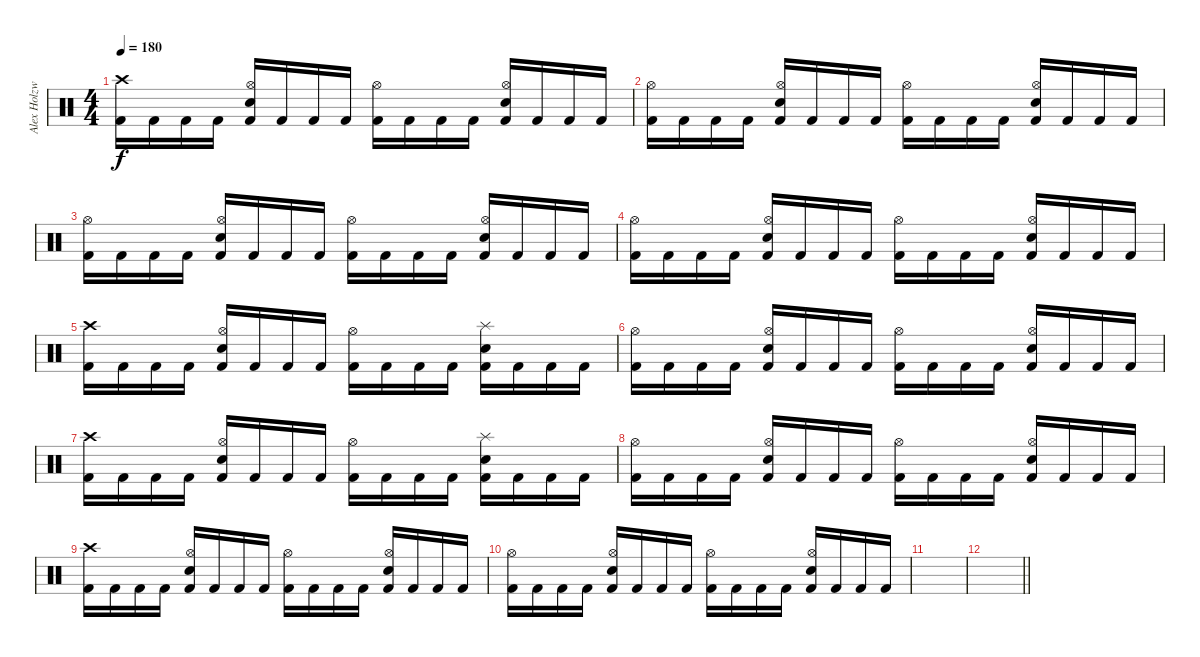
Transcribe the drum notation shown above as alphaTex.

\track ("Alex Holzwarth" "Alex Holzw") {instrument percussion}
\staff {score}
\articulation defaults
\ts (4 4)
\tempo 180
\clef neutral
\ks c
("Crash high (hit)" "Kick (hit) 2").16{dy f} "Kick (hit) 2".16 "Kick (hit) 2".16 "Kick (hit) 2".16 ("Hi-Hat (open)" "Electric Snare (hit)" "Kick (hit) 2").16 "Kick (hit) 2".16 "Kick (hit) 2".16 "Kick (hit) 2".16 ("Hi-Hat (open)" "Kick (hit) 2").16 "Kick (hit) 2".16 "Kick (hit) 2".16 "Kick (hit) 2".16 ("Hi-Hat (open)" "Electric Snare (hit)" "Kick (hit) 2").16 "Kick (hit) 2".16 "Kick (hit) 2".16 "Kick (hit) 2".16 |
("Hi-Hat (open)" "Kick (hit) 2").16 "Kick (hit) 2".16 "Kick (hit) 2".16 "Kick (hit) 2".16 ("Hi-Hat (open)" "Electric Snare (hit)" "Kick (hit) 2").16 "Kick (hit) 2".16 "Kick (hit) 2".16 "Kick (hit) 2".16 ("Hi-Hat (open)" "Kick (hit) 2").16 "Kick (hit) 2".16 "Kick (hit) 2".16 "Kick (hit) 2".16 ("Hi-Hat (open)" "Electric Snare (hit)" "Kick (hit) 2").16 "Kick (hit) 2".16 "Kick (hit) 2".16 "Kick (hit) 2".16 |
("Hi-Hat (open)" "Kick (hit) 2").16 "Kick (hit) 2".16 "Kick (hit) 2".16 "Kick (hit) 2".16 ("Hi-Hat (open)" "Electric Snare (hit)" "Kick (hit) 2").16 "Kick (hit) 2".16 "Kick (hit) 2".16 "Kick (hit) 2".16 ("Hi-Hat (open)" "Kick (hit) 2").16 "Kick (hit) 2".16 "Kick (hit) 2".16 "Kick (hit) 2".16 ("Hi-Hat (open)" "Electric Snare (hit)" "Kick (hit) 2").16 "Kick (hit) 2".16 "Kick (hit) 2".16 "Kick (hit) 2".16 |
("Hi-Hat (open)" "Kick (hit) 2").16 "Kick (hit) 2".16 "Kick (hit) 2".16 "Kick (hit) 2".16 ("Hi-Hat (open)" "Electric Snare (hit)" "Kick (hit) 2").16 "Kick (hit) 2".16 "Kick (hit) 2".16 "Kick (hit) 2".16 ("Hi-Hat (open)" "Kick (hit) 2").16 "Kick (hit) 2".16 "Kick (hit) 2".16 "Kick (hit) 2".16 ("Hi-Hat (open)" "Electric Snare (hit)" "Kick (hit) 2").16 "Kick (hit) 2".16 "Kick (hit) 2".16 "Kick (hit) 2".16 |
("Crash high (hit)" "Kick (hit) 2").16 "Kick (hit) 2".16 "Kick (hit) 2".16 "Kick (hit) 2".16 ("Hi-Hat (open)" "Electric Snare (hit)" "Kick (hit) 2").16 "Kick (hit) 2".16 "Kick (hit) 2".16 "Kick (hit) 2".16 ("Hi-Hat (open)" "Kick (hit) 2").16 "Kick (hit) 2".16 "Kick (hit) 2".16 "Kick (hit) 2".16 ("Splash (hit)" "Electric Snare (hit)" "Kick (hit) 2").16 "Kick (hit) 2".16 "Kick (hit) 2".16 "Kick (hit) 2".16 |
("Hi-Hat (open)" "Kick (hit) 2").16 "Kick (hit) 2".16 "Kick (hit) 2".16 "Kick (hit) 2".16 ("Hi-Hat (open)" "Electric Snare (hit)" "Kick (hit) 2").16 "Kick (hit) 2".16 "Kick (hit) 2".16 "Kick (hit) 2".16 ("Hi-Hat (open)" "Kick (hit) 2").16 "Kick (hit) 2".16 "Kick (hit) 2".16 "Kick (hit) 2".16 ("Hi-Hat (open)" "Electric Snare (hit)" "Kick (hit) 2").16 "Kick (hit) 2".16 "Kick (hit) 2".16 "Kick (hit) 2".16 |
("Crash high (hit)" "Kick (hit) 2").16 "Kick (hit) 2".16 "Kick (hit) 2".16 "Kick (hit) 2".16 ("Hi-Hat (open)" "Electric Snare (hit)" "Kick (hit) 2").16 "Kick (hit) 2".16 "Kick (hit) 2".16 "Kick (hit) 2".16 ("Hi-Hat (open)" "Kick (hit) 2").16 "Kick (hit) 2".16 "Kick (hit) 2".16 "Kick (hit) 2".16 ("Splash (hit)" "Electric Snare (hit)" "Kick (hit) 2").16 "Kick (hit) 2".16 "Kick (hit) 2".16 "Kick (hit) 2".16 |
("Hi-Hat (open)" "Kick (hit) 2").16 "Kick (hit) 2".16 "Kick (hit) 2".16 "Kick (hit) 2".16 ("Hi-Hat (open)" "Electric Snare (hit)" "Kick (hit) 2").16 "Kick (hit) 2".16 "Kick (hit) 2".16 "Kick (hit) 2".16 ("Hi-Hat (open)" "Kick (hit) 2").16 "Kick (hit) 2".16 "Kick (hit) 2".16 "Kick (hit) 2".16 ("Hi-Hat (open)" "Electric Snare (hit)" "Kick (hit) 2").16 "Kick (hit) 2".16 "Kick (hit) 2".16 "Kick (hit) 2".16 |
("Crash high (hit)" "Kick (hit) 2").16 "Kick (hit) 2".16 "Kick (hit) 2".16 "Kick (hit) 2".16 ("Hi-Hat (open)" "Electric Snare (hit)" "Kick (hit) 2").16 "Kick (hit) 2".16 "Kick (hit) 2".16 "Kick (hit) 2".16 ("Hi-Hat (open)" "Kick (hit) 2").16 "Kick (hit) 2".16 "Kick (hit) 2".16 "Kick (hit) 2".16 ("Hi-Hat (open)" "Electric Snare (hit)" "Kick (hit) 2").16 "Kick (hit) 2".16 "Kick (hit) 2".16 "Kick (hit) 2".16 |
("Hi-Hat (open)" "Kick (hit) 2").16 "Kick (hit) 2".16 "Kick (hit) 2".16 "Kick (hit) 2".16 ("Hi-Hat (open)" "Electric Snare (hit)" "Kick (hit) 2").16 "Kick (hit) 2".16 "Kick (hit) 2".16 "Kick (hit) 2".16 ("Hi-Hat (open)" "Kick (hit) 2").16 "Kick (hit) 2".16 "Kick (hit) 2".16 "Kick (hit) 2".16 ("Hi-Hat (open)" "Electric Snare (hit)" "Kick (hit) 2").16 "Kick (hit) 2".16 "Kick (hit) 2".16 "Kick (hit) 2".16 |
|
\barLineRight lightlight
